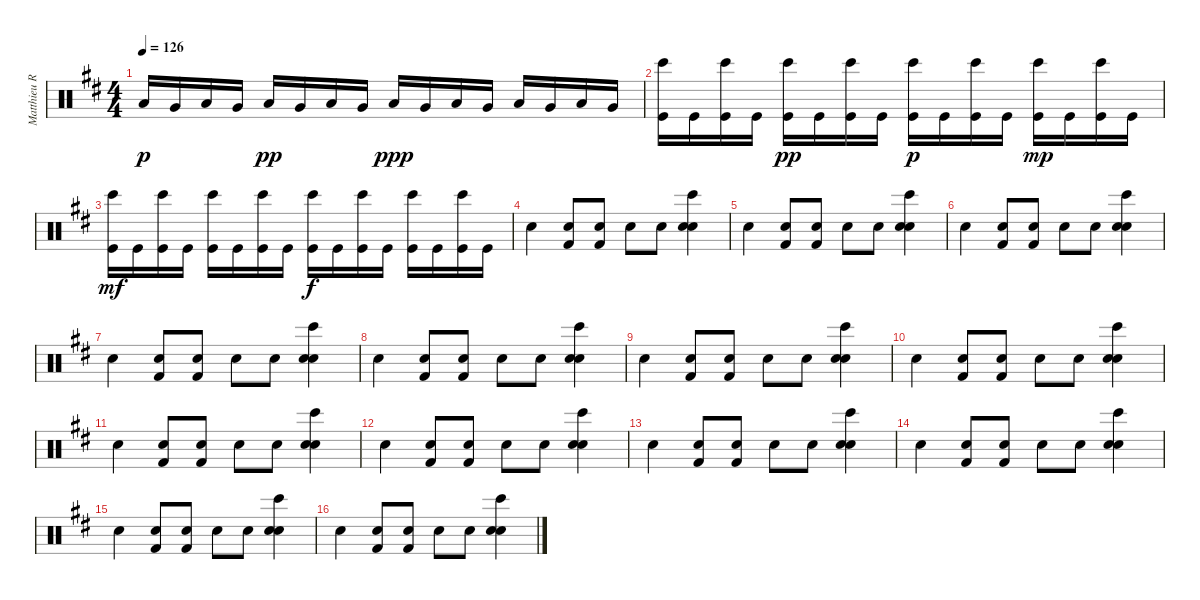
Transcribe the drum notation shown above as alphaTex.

\track ("Matthieu Rabatté (batterie)" "Matthieu R") {instrument percussion}
\staff {score}
\articulation defaults
\ts (4 4)
\tempo 126
\clef neutral
\ks d "Low Floor Tom (hit)".16{dy p} "Very Low Tom (hit)".16 "Low Floor Tom (hit)".16 "Very Low Tom (hit)".16 "Low Floor Tom (hit)".16{dy pp} "Very Low Tom (hit)".16 "Low Floor Tom (hit)".16 "Very Low Tom (hit)".16 "Low Floor Tom (hit)".16{dy ppp} "Very Low Tom (hit)".16 "Low Floor Tom (hit)".16 "Very Low Tom (hit)".16 "Low Floor Tom (hit)".16 "Very Low Tom (hit)".16 "Low Floor Tom (hit)".16 "Very Low Tom (hit)".16
|
("Kick (hit)" "Bongo High (hit)").16 "Kick (hit)".16 ("Kick (hit)" "Bongo High (hit)").16 "Kick (hit)".16 ("Kick (hit)" "Bongo High (hit)").16{dy pp} "Kick (hit)".16 ("Kick (hit)" "Bongo High (hit)").16 "Kick (hit)".16 ("Kick (hit)" "Bongo High (hit)").16{dy p} "Kick (hit)".16 ("Kick (hit)" "Bongo High (hit)").16 "Kick (hit)".16 ("Kick (hit)" "Bongo High (hit)").16{dy mp} "Kick (hit)".16 ("Kick (hit)" "Bongo High (hit)").16 "Kick (hit)".16 |
("Kick (hit)" "Bongo High (hit)").16{dy mf} "Kick (hit)".16 ("Kick (hit)" "Bongo High (hit)").16 "Kick (hit)".16 ("Kick (hit)" "Bongo High (hit)").16 "Kick (hit)".16 ("Kick (hit)" "Bongo High (hit)").16 "Kick (hit)".16 ("Kick (hit)" "Bongo High (hit)").16{dy f} "Kick (hit)".16 ("Kick (hit)" "Bongo High (hit)").16 "Kick (hit)".16 ("Kick (hit)" "Bongo High (hit)").16 "Kick (hit)".16 ("Kick (hit)" "Bongo High (hit)").16 "Kick (hit)".16 |
"Snare (hit) 2".4 ("Kick (hit) 2" "Electric Snare (hit)").8 ("Kick (hit) 2" "Electric Snare (hit)").8 "Snare (hit) 2".8 "Snare (hit) 2".8 ("Bongo High (hit)" "Electric Snare (hit)" "Hand Clap (hit)").4 |
"Snare (hit) 2".4 ("Kick (hit) 2" "Electric Snare (hit)").8 ("Kick (hit) 2" "Electric Snare (hit)").8 "Snare (hit) 2".8 "Snare (hit) 2".8 ("Bongo High (hit)" "Electric Snare (hit)" "Hand Clap (hit)").4 |
"Snare (hit) 2".4 ("Kick (hit) 2" "Electric Snare (hit)").8 ("Kick (hit) 2" "Electric Snare (hit)").8 "Snare (hit) 2".8 "Snare (hit) 2".8 ("Bongo High (hit)" "Electric Snare (hit)" "Hand Clap (hit)").4 |
"Snare (hit) 2".4 ("Kick (hit) 2" "Electric Snare (hit)").8 ("Kick (hit) 2" "Electric Snare (hit)").8 "Snare (hit) 2".8 "Snare (hit) 2".8 ("Bongo High (hit)" "Electric Snare (hit)" "Hand Clap (hit)").4 |
"Snare (hit) 2".4 ("Kick (hit) 2" "Electric Snare (hit)").8 ("Kick (hit) 2" "Electric Snare (hit)").8 "Snare (hit) 2".8 "Snare (hit) 2".8 ("Bongo High (hit)" "Electric Snare (hit)" "Hand Clap (hit)").4 |
"Snare (hit) 2".4 ("Kick (hit) 2" "Electric Snare (hit)").8 ("Kick (hit) 2" "Electric Snare (hit)").8 "Snare (hit) 2".8 "Snare (hit) 2".8 ("Bongo High (hit)" "Electric Snare (hit)" "Hand Clap (hit)").4 |
"Snare (hit) 2".4 ("Kick (hit) 2" "Electric Snare (hit)").8 ("Kick (hit) 2" "Electric Snare (hit)").8 "Snare (hit) 2".8 "Snare (hit) 2".8 ("Bongo High (hit)" "Electric Snare (hit)" "Hand Clap (hit)").4 |
"Snare (hit) 2".4 ("Kick (hit) 2" "Electric Snare (hit)").8 ("Kick (hit) 2" "Electric Snare (hit)").8 "Snare (hit) 2".8 "Snare (hit) 2".8 ("Bongo High (hit)" "Electric Snare (hit)" "Hand Clap (hit)").4 |
"Snare (hit) 2".4 ("Kick (hit) 2" "Electric Snare (hit)").8 ("Kick (hit) 2" "Electric Snare (hit)").8 "Snare (hit) 2".8 "Snare (hit) 2".8 ("Bongo High (hit)" "Electric Snare (hit)" "Hand Clap (hit)").4 |
"Snare (hit) 2".4 ("Kick (hit) 2" "Electric Snare (hit)").8 ("Kick (hit) 2" "Electric Snare (hit)").8 "Snare (hit) 2".8 "Snare (hit) 2".8 ("Bongo High (hit)" "Electric Snare (hit)" "Hand Clap (hit)").4 |
"Snare (hit) 2".4 ("Kick (hit) 2" "Electric Snare (hit)").8 ("Kick (hit) 2" "Electric Snare (hit)").8 "Snare (hit) 2".8 "Snare (hit) 2".8 ("Bongo High (hit)" "Electric Snare (hit)" "Hand Clap (hit)").4 |
"Snare (hit) 2".4 ("Kick (hit) 2" "Electric Snare (hit)").8 ("Kick (hit) 2" "Electric Snare (hit)").8 "Snare (hit) 2".8 "Snare (hit) 2".8 ("Bongo High (hit)" "Electric Snare (hit)" "Hand Clap (hit)").4 |
"Snare (hit) 2".4 ("Kick (hit) 2" "Electric Snare (hit)").8 ("Kick (hit) 2" "Electric Snare (hit)").8 "Snare (hit) 2".8 "Snare (hit) 2".8 ("Bongo High (hit)" "Electric Snare (hit)" "Hand Clap (hit)").4
